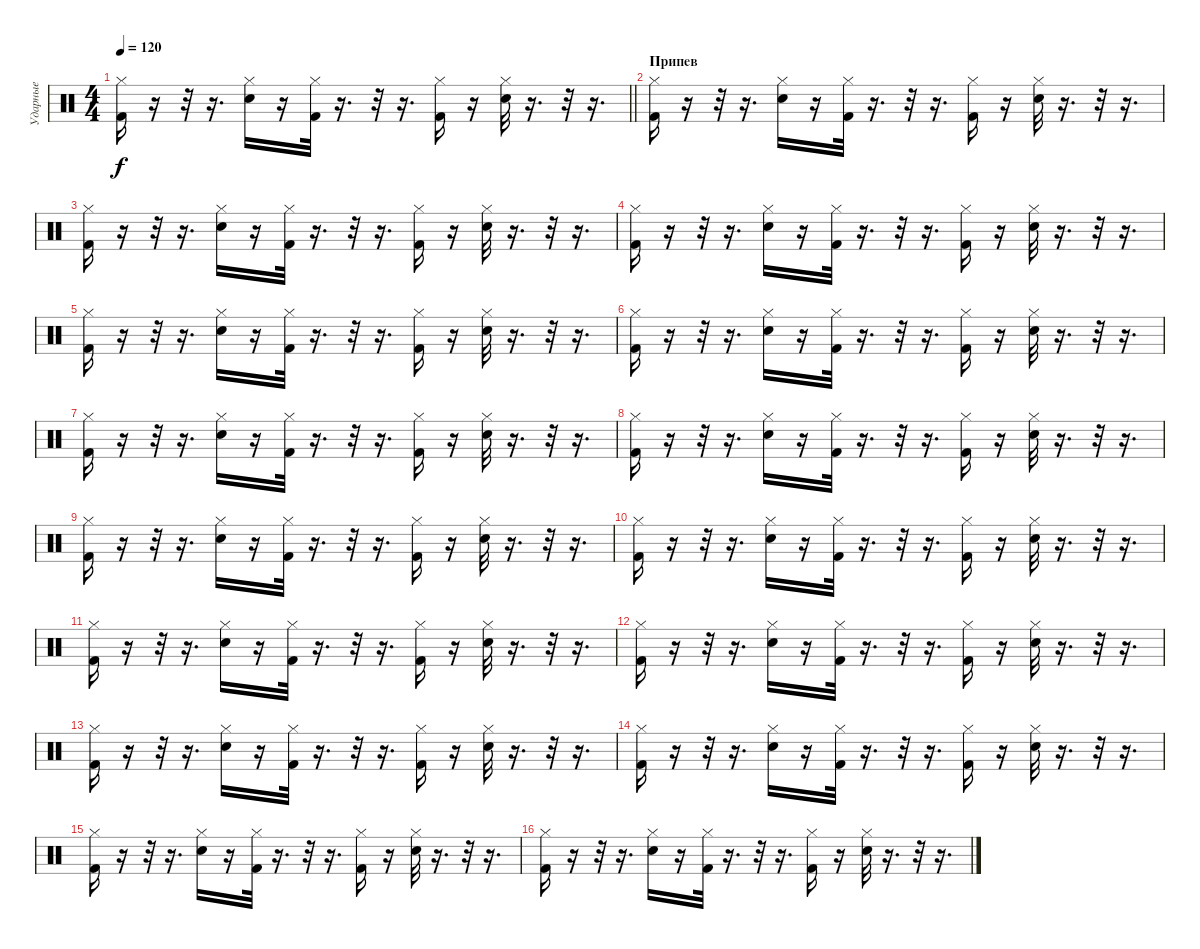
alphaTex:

\track ("Ударные" "Ударные") {instrument percussion}
\staff {score}
\articulation defaults
\ts (4 4)
\tempo 120
\clef neutral
\barLineRight lightlight
\ks c
("Hi-Hat (closed)" "Kick (hit) 2").16{dy f} r.16 r.32 r.16{d} ("Hi-Hat (closed)" "Electric Snare (hit)").16 r.16 ("Hi-Hat (closed)" "Kick (hit) 2").32 r.16{d} r.32 r.16{d} ("Kick (hit) 2" "Hi-Hat (closed)").16 r.16 ("Electric Snare (hit)" "Hi-Hat (closed)").32 r.16{d} r.32 r.16{d} |
\section ("" "Припев")
("Hi-Hat (closed)" "Kick (hit) 2").16 r.16 r.32 r.16{d} ("Hi-Hat (closed)" "Electric Snare (hit)").16 r.16 ("Hi-Hat (closed)" "Kick (hit) 2").32 r.16{d} r.32 r.16{d} ("Kick (hit) 2" "Hi-Hat (closed)").16 r.16 ("Electric Snare (hit)" "Hi-Hat (closed)").32 r.16{d} r.32 r.16{d} |
("Hi-Hat (closed)" "Kick (hit) 2").16 r.16 r.32 r.16{d} ("Hi-Hat (closed)" "Electric Snare (hit)").16 r.16 ("Hi-Hat (closed)" "Kick (hit) 2").32 r.16{d} r.32 r.16{d} ("Kick (hit) 2" "Hi-Hat (closed)").16 r.16 ("Electric Snare (hit)" "Hi-Hat (closed)").32 r.16{d} r.32 r.16{d} |
("Hi-Hat (closed)" "Kick (hit) 2").16 r.16 r.32 r.16{d} ("Hi-Hat (closed)" "Electric Snare (hit)").16 r.16 ("Hi-Hat (closed)" "Kick (hit) 2").32 r.16{d} r.32 r.16{d} ("Kick (hit) 2" "Hi-Hat (closed)").16 r.16 ("Electric Snare (hit)" "Hi-Hat (closed)").32 r.16{d} r.32 r.16{d} |
("Hi-Hat (closed)" "Kick (hit) 2").16 r.16 r.32 r.16{d} ("Hi-Hat (closed)" "Electric Snare (hit)").16 r.16 ("Hi-Hat (closed)" "Kick (hit) 2").32 r.16{d} r.32 r.16{d} ("Kick (hit) 2" "Hi-Hat (closed)").16 r.16 ("Electric Snare (hit)" "Hi-Hat (closed)").32 r.16{d} r.32 r.16{d} |
("Hi-Hat (closed)" "Kick (hit) 2").16 r.16 r.32 r.16{d} ("Hi-Hat (closed)" "Electric Snare (hit)").16 r.16 ("Hi-Hat (closed)" "Kick (hit) 2").32 r.16{d} r.32 r.16{d} ("Kick (hit) 2" "Hi-Hat (closed)").16 r.16 ("Electric Snare (hit)" "Hi-Hat (closed)").32 r.16{d} r.32 r.16{d} |
("Hi-Hat (closed)" "Kick (hit) 2").16 r.16 r.32 r.16{d} ("Hi-Hat (closed)" "Electric Snare (hit)").16 r.16 ("Hi-Hat (closed)" "Kick (hit) 2").32 r.16{d} r.32 r.16{d} ("Kick (hit) 2" "Hi-Hat (closed)").16 r.16 ("Electric Snare (hit)" "Hi-Hat (closed)").32 r.16{d} r.32 r.16{d} |
("Hi-Hat (closed)" "Kick (hit) 2").16 r.16 r.32 r.16{d} ("Hi-Hat (closed)" "Electric Snare (hit)").16 r.16 ("Hi-Hat (closed)" "Kick (hit) 2").32 r.16{d} r.32 r.16{d} ("Kick (hit) 2" "Hi-Hat (closed)").16 r.16 ("Electric Snare (hit)" "Hi-Hat (closed)").32 r.16{d} r.32 r.16{d} |
("Hi-Hat (closed)" "Kick (hit) 2").16 r.16 r.32 r.16{d} ("Hi-Hat (closed)" "Electric Snare (hit)").16 r.16 ("Hi-Hat (closed)" "Kick (hit) 2").32 r.16{d} r.32 r.16{d} ("Kick (hit) 2" "Hi-Hat (closed)").16 r.16 ("Electric Snare (hit)" "Hi-Hat (closed)").32 r.16{d} r.32 r.16{d} |
("Hi-Hat (closed)" "Kick (hit) 2").16 r.16 r.32 r.16{d} ("Hi-Hat (closed)" "Electric Snare (hit)").16 r.16 ("Hi-Hat (closed)" "Kick (hit) 2").32 r.16{d} r.32 r.16{d} ("Kick (hit) 2" "Hi-Hat (closed)").16 r.16 ("Electric Snare (hit)" "Hi-Hat (closed)").32 r.16{d} r.32 r.16{d} |
("Hi-Hat (closed)" "Kick (hit) 2").16 r.16 r.32 r.16{d} ("Hi-Hat (closed)" "Electric Snare (hit)").16 r.16 ("Hi-Hat (closed)" "Kick (hit) 2").32 r.16{d} r.32 r.16{d} ("Kick (hit) 2" "Hi-Hat (closed)").16 r.16 ("Electric Snare (hit)" "Hi-Hat (closed)").32 r.16{d} r.32 r.16{d} |
("Hi-Hat (closed)" "Kick (hit) 2").16 r.16 r.32 r.16{d} ("Hi-Hat (closed)" "Electric Snare (hit)").16 r.16 ("Hi-Hat (closed)" "Kick (hit) 2").32 r.16{d} r.32 r.16{d} ("Kick (hit) 2" "Hi-Hat (closed)").16 r.16 ("Electric Snare (hit)" "Hi-Hat (closed)").32 r.16{d} r.32 r.16{d} |
("Hi-Hat (closed)" "Kick (hit) 2").16 r.16 r.32 r.16{d} ("Hi-Hat (closed)" "Electric Snare (hit)").16 r.16 ("Hi-Hat (closed)" "Kick (hit) 2").32 r.16{d} r.32 r.16{d} ("Kick (hit) 2" "Hi-Hat (closed)").16 r.16 ("Electric Snare (hit)" "Hi-Hat (closed)").32 r.16{d} r.32 r.16{d} |
("Hi-Hat (closed)" "Kick (hit) 2").16 r.16 r.32 r.16{d} ("Hi-Hat (closed)" "Electric Snare (hit)").16 r.16 ("Hi-Hat (closed)" "Kick (hit) 2").32 r.16{d} r.32 r.16{d} ("Kick (hit) 2" "Hi-Hat (closed)").16 r.16 ("Electric Snare (hit)" "Hi-Hat (closed)").32 r.16{d} r.32 r.16{d} |
("Hi-Hat (closed)" "Kick (hit) 2").16 r.16 r.32 r.16{d} ("Hi-Hat (closed)" "Electric Snare (hit)").16 r.16 ("Hi-Hat (closed)" "Kick (hit) 2").32 r.16{d} r.32 r.16{d} ("Kick (hit) 2" "Hi-Hat (closed)").16 r.16 ("Electric Snare (hit)" "Hi-Hat (closed)").32 r.16{d} r.32 r.16{d} |
("Hi-Hat (closed)" "Kick (hit) 2").16 r.16 r.32 r.16{d} ("Hi-Hat (closed)" "Electric Snare (hit)").16 r.16 ("Hi-Hat (closed)" "Kick (hit) 2").32 r.16{d} r.32 r.16{d} ("Kick (hit) 2" "Hi-Hat (closed)").16 r.16 ("Electric Snare (hit)" "Hi-Hat (closed)").32 r.16{d} r.32 r.16{d}
